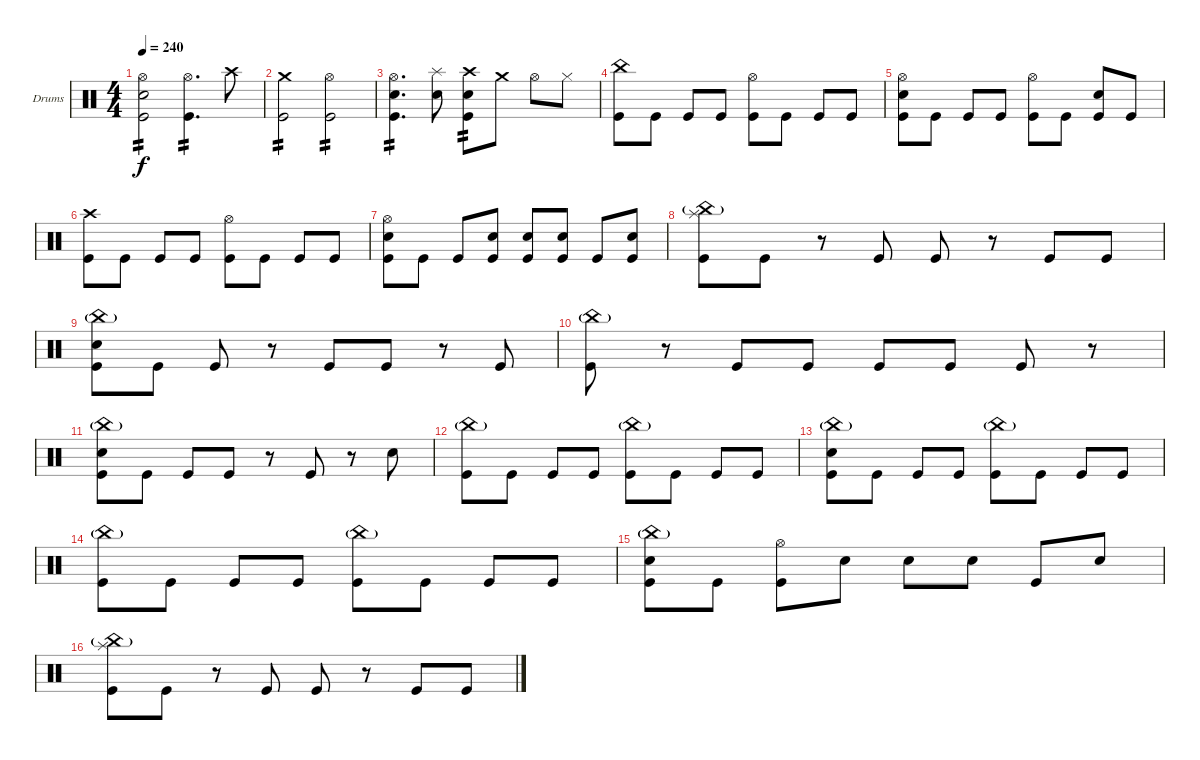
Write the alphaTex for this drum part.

\bracketExtendMode groupsimilarinstruments
\firstSystemTrackNameOrientation horizontal
\otherSystemsTrackNameOrientation horizontal
\track ("Drumkit" "Drums") {instrument percussion}
\staff {score}
\articulation defaults
\ts (4 4)
\tempo 240
\clef neutral
\ks c
("Hi-Hat (open)" "Snare (hit) 2" "Kick (hit)").2{tp 2 dy f} ("Hi-Hat (open)" "Kick (hit)").4{d tp 2} "Crash high (hit)".8 |
("Crash medium (hit)" "Kick (hit)").2{tp 2} ("Hi-Hat (open)" "Kick (hit)").2{tp 2} |
("Hi-Hat (open)" "Snare (hit) 2" "Kick (hit)").4{d tp 2} ("Splash (hit)" "Snare (hit) 2").8 ("Crash high (hit)" "Snare (hit) 2" "Kick (hit)").8{tp 2} "Crash medium (hit)".8 "Hi-Hat (open)".8 "Hi-Hat (closed)".8 |
("China (hit)" "Kick (hit)").8 "Kick (hit)".8 "Kick (hit)".8 "Kick (hit)".8 ("Hi-Hat (open)" "Kick (hit)").8 "Kick (hit)".8 "Kick (hit)".8 "Kick (hit)".8 |
("Hi-Hat (open)" "Snare (hit) 2" "Kick (hit)").8 "Kick (hit)".8 "Kick (hit)".8 "Kick (hit)".8 ("Hi-Hat (open)" "Kick (hit)").8 "Kick (hit)".8 ("Snare (hit) 2" "Kick (hit)").8 "Kick (hit)".8 |
("Crash high (hit)" "Kick (hit)").8 "Kick (hit)".8 "Kick (hit)".8 "Kick (hit)".8 ("Hi-Hat (open)" "Kick (hit)").8 "Kick (hit)".8 "Kick (hit)".8 "Kick (hit)".8 |
("Hi-Hat (open)" "Snare (hit) 2" "Kick (hit)").8 "Kick (hit)".8 "Kick (hit)".8 ("Snare (hit) 2" "Kick (hit)").8 ("Snare (hit) 2" "Kick (hit)").8 ("Snare (hit) 2" "Kick (hit)").8 "Kick (hit)".8 ("Snare (hit) 2" "Kick (hit)").8 |
("Splash (hit)" "China (hit)"{g} "Kick (hit)").8 "Kick (hit)".8 r.8 "Kick (hit)".8 "Kick (hit)".8 r.8 "Kick (hit)".8 "Kick (hit)".8 |
("China (hit)"{g} "Snare (hit) 2" "Kick (hit)").8 "Kick (hit)".8 "Kick (hit)".8 r.8 "Kick (hit)".8 "Kick (hit)".8 r.8 "Kick (hit)".8 |
("China (hit)"{g} "Kick (hit)").8 r.8 "Kick (hit)".8 "Kick (hit)".8 "Kick (hit)".8 "Kick (hit)".8 "Kick (hit)".8 r.8 |
("China (hit)"{g} "Snare (hit) 2" "Kick (hit)").8 "Kick (hit)".8 "Kick (hit)".8 "Kick (hit)".8 r.8 "Kick (hit)".8 r.8 "Snare (hit) 2".8 |
("China (hit)"{g} "Kick (hit)").8 "Kick (hit)".8 "Kick (hit)".8 "Kick (hit)".8 ("China (hit)"{g} "Kick (hit)").8 "Kick (hit)".8 "Kick (hit)".8 "Kick (hit)".8 |
("China (hit)"{g} "Snare (hit) 2" "Kick (hit)").8 "Kick (hit)".8 "Kick (hit)".8 "Kick (hit)".8 ("China (hit)"{g} "Kick (hit)").8 "Kick (hit)".8 "Kick (hit)".8 "Kick (hit)".8 |
("China (hit)"{g} "Kick (hit)").8 "Kick (hit)".8 "Kick (hit)".8 "Kick (hit)".8 ("China (hit)"{g} "Kick (hit)").8 "Kick (hit)".8 "Kick (hit)".8 "Kick (hit)".8 |
("China (hit)"{g} "Snare (hit) 2" "Kick (hit)").8 "Kick (hit)".8 ("Hi-Hat (open)" "Kick (hit)").8 "Snare (hit) 2".8 "Snare (hit) 2".8 "Snare (hit) 2".8 "Kick (hit)".8 "Snare (hit) 2".8 |
("Splash (hit)" "China (hit)"{g} "Kick (hit)").8 "Kick (hit)".8 r.8 "Kick (hit)".8 "Kick (hit)".8 r.8 "Kick (hit)".8 "Kick (hit)".8
